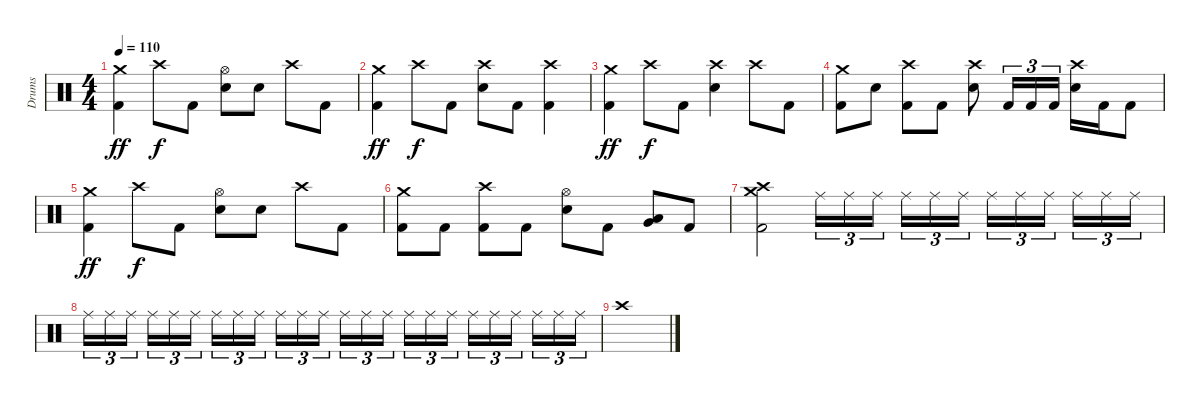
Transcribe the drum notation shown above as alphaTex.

\track ("Drums" "Drums") {instrument percussion}
\staff {score}
\articulation defaults
\ts (4 4)
\tempo 110
\clef neutral
\ks c
("Crash medium (hit)" "Kick (hit) 2").4{dy ff} "Crash high (hit)".8{dy f} "Kick (hit) 2".8 ("Hi-Hat (open)" "Electric Snare (hit)").8 "Electric Snare (hit)".8 "Crash high (hit)".8 "Kick (hit) 2".8 |
("Crash medium (hit)" "Kick (hit) 2").4{dy ff} "Crash high (hit)".8{dy f} "Kick (hit) 2".8 ("Crash high (hit)" "Electric Snare (hit)").8 "Kick (hit) 2".8 ("Crash high (hit)" "Kick (hit) 2").4 |
("Crash medium (hit)" "Kick (hit) 2").4{dy ff} "Crash high (hit)".8{dy f} "Kick (hit) 2".8 ("Crash high (hit)" "Electric Snare (hit)").4 "Crash high (hit)".8 "Kick (hit) 2".8 |
("Crash medium (hit)" "Kick (hit) 2").8 "Electric Snare (hit)".8 ("Crash high (hit)" "Kick (hit) 2").8 "Kick (hit) 2".8 ("Crash high (hit)" "Electric Snare (hit)").8 "Kick (hit) 2".16{tu (3 2)} "Kick (hit) 2".16{tu (3 2)} "Kick (hit) 2".16{tu (3 2)} ("Crash high (hit)" "Electric Snare (hit)").16 "Kick (hit) 2".16 "Kick (hit) 2".8 |
("Crash medium (hit)" "Kick (hit) 2").4{dy ff} "Crash high (hit)".8{dy f} "Kick (hit) 2".8 ("Hi-Hat (open)" "Electric Snare (hit)").8 "Electric Snare (hit)".8 "Crash high (hit)".8 "Kick (hit) 2".8 |
("Crash medium (hit)" "Kick (hit) 2").8 "Kick (hit) 2".8 ("Crash high (hit)" "Kick (hit) 2").8 "Kick (hit) 2".8 ("Hi-Hat (open)" "Electric Snare (hit)").8 "Kick (hit) 2".8 ("Low Tom (hit)" "Very Low Tom (hit)").8 "Kick (hit) 2".8 |
("Crash medium (hit)" "Crash high (hit)" "Kick (hit) 2").2 "Ride (middle)".16{tu (3 2) volume 5} "Ride (middle)".16{tu (3 2) volume 15} "Ride (middle)".16{tu (3 2) beam splitsecondary} "Ride (middle)".16{tu (3 2)} "Ride (middle)".16{tu (3 2)} "Ride (middle)".16{tu (3 2)} "Ride (middle)".16{tu (3 2)} "Ride (middle)".16{tu (3 2)} "Ride (middle)".16{tu (3 2) beam splitsecondary} "Ride (middle)".16{tu (3 2)} "Ride (middle)".16{tu (3 2)} "Ride (middle)".16{tu (3 2)} |
"Ride (middle)".16{tu (3 2)} "Ride (middle)".16{tu (3 2)} "Ride (middle)".16{tu (3 2) beam splitsecondary} "Ride (middle)".16{tu (3 2)} "Ride (middle)".16{tu (3 2)} "Ride (middle)".16{tu (3 2)} "Ride (middle)".16{tu (3 2)} "Ride (middle)".16{tu (3 2)} "Ride (middle)".16{tu (3 2) beam splitsecondary} "Ride (middle)".16{tu (3 2)} "Ride (middle)".16{tu (3 2)} "Ride (middle)".16{tu (3 2)} "Ride (middle)".16{tu (3 2)} "Ride (middle)".16{tu (3 2)} "Ride (middle)".16{tu (3 2) beam splitsecondary} "Ride (middle)".16{tu (3 2)} "Ride (middle)".16{tu (3 2)} "Ride (middle)".16{tu (3 2)} "Ride (middle)".16{tu (3 2)} "Ride (middle)".16{tu (3 2)} "Ride (middle)".16{tu (3 2) beam splitsecondary} "Ride (middle)".16{tu (3 2)} "Ride (middle)".16{tu (3 2)} "Ride (middle)".16{tu (3 2)} |
"Crash high (hit)".1
